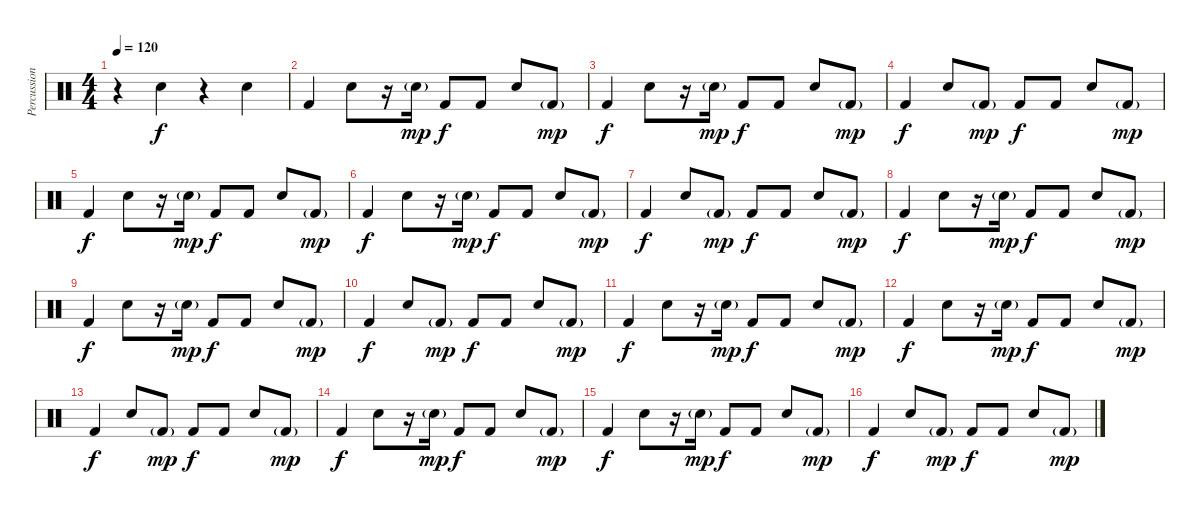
\track ("Percussion" "Percussion") {instrument percussion}
\staff {score}
\articulation defaults
\ts (4 4)
\tempo 120
\clef neutral
\ks c
r.4{dy f} "Snare (hit) 2".4 r.4 "Snare (hit) 2".4 |
"Kick (hit) 2".4 "Snare (hit) 2".8 r.16 "Snare (hit) 2"{g}.16{dy mp} "Kick (hit) 2".8{dy f} "Kick (hit) 2".8 "Snare (hit) 2".8 "Kick (hit) 2"{g}.8{dy mp} |
"Kick (hit) 2".4{dy f} "Snare (hit) 2".8 r.16 "Snare (hit) 2"{g}.16{dy mp} "Kick (hit) 2".8{dy f} "Kick (hit) 2".8 "Snare (hit) 2".8 "Kick (hit) 2"{g}.8{dy mp} |
"Kick (hit) 2".4{dy f} "Snare (hit) 2".8 "Kick (hit) 2"{g}.8{dy mp} "Kick (hit) 2".8{dy f} "Kick (hit) 2".8 "Snare (hit) 2".8 "Kick (hit) 2"{g}.8{dy mp} |
"Kick (hit) 2".4{dy f} "Snare (hit) 2".8 r.16 "Snare (hit) 2"{g}.16{dy mp} "Kick (hit) 2".8{dy f} "Kick (hit) 2".8 "Snare (hit) 2".8 "Kick (hit) 2"{g}.8{dy mp} |
"Kick (hit) 2".4{dy f} "Snare (hit) 2".8 r.16 "Snare (hit) 2"{g}.16{dy mp} "Kick (hit) 2".8{dy f} "Kick (hit) 2".8 "Snare (hit) 2".8 "Kick (hit) 2"{g}.8{dy mp} |
"Kick (hit) 2".4{dy f} "Snare (hit) 2".8 "Kick (hit) 2"{g}.8{dy mp} "Kick (hit) 2".8{dy f} "Kick (hit) 2".8 "Snare (hit) 2".8 "Kick (hit) 2"{g}.8{dy mp} |
"Kick (hit) 2".4{dy f} "Snare (hit) 2".8 r.16 "Snare (hit) 2"{g}.16{dy mp} "Kick (hit) 2".8{dy f} "Kick (hit) 2".8 "Snare (hit) 2".8 "Kick (hit) 2"{g}.8{dy mp} |
"Kick (hit) 2".4{dy f} "Snare (hit) 2".8 r.16 "Snare (hit) 2"{g}.16{dy mp} "Kick (hit) 2".8{dy f} "Kick (hit) 2".8 "Snare (hit) 2".8 "Kick (hit) 2"{g}.8{dy mp} |
"Kick (hit) 2".4{dy f} "Snare (hit) 2".8 "Kick (hit) 2"{g}.8{dy mp} "Kick (hit) 2".8{dy f} "Kick (hit) 2".8 "Snare (hit) 2".8 "Kick (hit) 2"{g}.8{dy mp} |
"Kick (hit) 2".4{dy f} "Snare (hit) 2".8 r.16 "Snare (hit) 2"{g}.16{dy mp} "Kick (hit) 2".8{dy f} "Kick (hit) 2".8 "Snare (hit) 2".8 "Kick (hit) 2"{g}.8{dy mp} |
"Kick (hit) 2".4{dy f} "Snare (hit) 2".8 r.16 "Snare (hit) 2"{g}.16{dy mp} "Kick (hit) 2".8{dy f} "Kick (hit) 2".8 "Snare (hit) 2".8 "Kick (hit) 2"{g}.8{dy mp} |
"Kick (hit) 2".4{dy f} "Snare (hit) 2".8 "Kick (hit) 2"{g}.8{dy mp} "Kick (hit) 2".8{dy f} "Kick (hit) 2".8 "Snare (hit) 2".8 "Kick (hit) 2"{g}.8{dy mp} |
"Kick (hit) 2".4{dy f} "Snare (hit) 2".8 r.16 "Snare (hit) 2"{g}.16{dy mp} "Kick (hit) 2".8{dy f} "Kick (hit) 2".8 "Snare (hit) 2".8 "Kick (hit) 2"{g}.8{dy mp} |
"Kick (hit) 2".4{dy f} "Snare (hit) 2".8 r.16 "Snare (hit) 2"{g}.16{dy mp} "Kick (hit) 2".8{dy f} "Kick (hit) 2".8 "Snare (hit) 2".8 "Kick (hit) 2"{g}.8{dy mp} |
"Kick (hit) 2".4{dy f} "Snare (hit) 2".8 "Kick (hit) 2"{g}.8{dy mp} "Kick (hit) 2".8{dy f} "Kick (hit) 2".8 "Snare (hit) 2".8 "Kick (hit) 2"{g}.8{dy mp}
